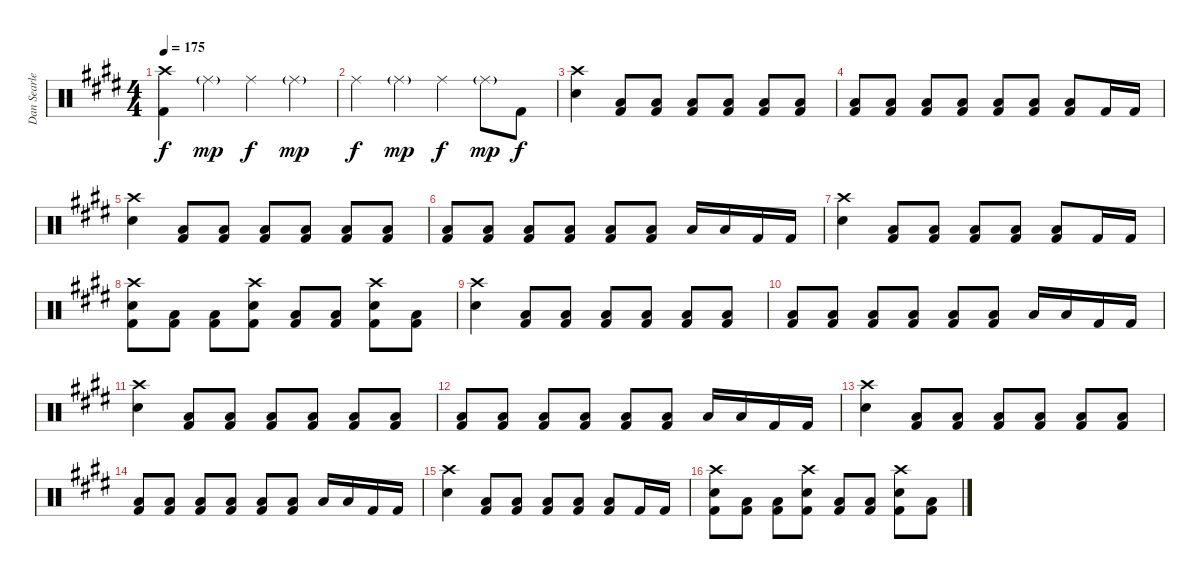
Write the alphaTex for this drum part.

\track ("Dan Searle" "Dan Searle") {instrument percussion}
\staff {score}
\articulation defaults
\ts (4 4)
\tempo 175
\clef neutral
\ks e
("Crash high (hit)" "Kick (hit) 2").4{dy f} "Ride (middle)"{g}.4{dy mp} "Ride (middle)".4{dy f} "Ride (middle)"{g}.4{dy mp} |
"Ride (middle)".4{dy f} "Ride (middle)"{g}.4{dy mp} "Ride (middle)".4{dy f} "Ride (middle)"{g}.8{dy mp} "Kick (hit) 2".8{dy f} |
("Crash high (hit)" "Snare (hit) 2").4 ("Low Floor Tom (hit)" "Kick (hit) 2").8 ("Low Floor Tom (hit)" "Kick (hit) 2").8 ("Low Floor Tom (hit)" "Kick (hit) 2").8 ("Low Floor Tom (hit)" "Kick (hit) 2").8 ("Low Floor Tom (hit)" "Kick (hit) 2").8 ("Low Floor Tom (hit)" "Kick (hit) 2").8 |
("Low Floor Tom (hit)" "Kick (hit) 2").8 ("Low Floor Tom (hit)" "Kick (hit) 2").8 ("Low Floor Tom (hit)" "Kick (hit) 2").8 ("Low Floor Tom (hit)" "Kick (hit) 2").8 ("Low Floor Tom (hit)" "Kick (hit) 2").8 ("Low Floor Tom (hit)" "Kick (hit) 2").8 ("Low Floor Tom (hit)" "Kick (hit) 2").8 "Kick (hit) 2".16 "Kick (hit) 2".16 |
("Crash high (hit)" "Snare (hit) 2").4 ("Low Floor Tom (hit)" "Kick (hit) 2").8 ("Low Floor Tom (hit)" "Kick (hit) 2").8 ("Low Floor Tom (hit)" "Kick (hit) 2").8 ("Low Floor Tom (hit)" "Kick (hit) 2").8 ("Low Floor Tom (hit)" "Kick (hit) 2").8 ("Low Floor Tom (hit)" "Kick (hit) 2").8 |
("Low Floor Tom (hit)" "Kick (hit) 2").8 ("Low Floor Tom (hit)" "Kick (hit) 2").8 ("Low Floor Tom (hit)" "Kick (hit) 2").8 ("Low Floor Tom (hit)" "Kick (hit) 2").8 ("Low Floor Tom (hit)" "Kick (hit) 2").8 ("Low Floor Tom (hit)" "Kick (hit) 2").8 "Low Floor Tom (hit)".16 "Low Floor Tom (hit)".16 "Kick (hit) 2".16 "Kick (hit) 2".16 |
("Crash high (hit)" "Snare (hit) 2").4 ("Low Floor Tom (hit)" "Kick (hit) 2").8 ("Low Floor Tom (hit)" "Kick (hit) 2").8 ("Low Floor Tom (hit)" "Kick (hit) 2").8 ("Low Floor Tom (hit)" "Kick (hit) 2").8 ("Low Floor Tom (hit)" "Kick (hit) 2").8 "Kick (hit) 2".16 "Kick (hit) 2".16 |
("Crash high (hit)" "Snare (hit) 2" "Kick (hit) 2").8 ("Low Floor Tom (hit)" "Kick (hit) 2").8 ("Low Floor Tom (hit)" "Kick (hit) 2").8 ("Crash high (hit)" "Snare (hit) 2" "Kick (hit) 2").8 ("Low Floor Tom (hit)" "Kick (hit) 2").8 ("Low Floor Tom (hit)" "Kick (hit) 2").8 ("Crash high (hit)" "Snare (hit) 2" "Kick (hit) 2").8 ("Low Floor Tom (hit)" "Kick (hit) 2").8 |
("Crash high (hit)" "Snare (hit) 2").4 ("Low Floor Tom (hit)" "Kick (hit) 2").8 ("Low Floor Tom (hit)" "Kick (hit) 2").8 ("Low Floor Tom (hit)" "Kick (hit) 2").8 ("Low Floor Tom (hit)" "Kick (hit) 2").8 ("Low Floor Tom (hit)" "Kick (hit) 2").8 ("Low Floor Tom (hit)" "Kick (hit) 2").8 |
("Low Floor Tom (hit)" "Kick (hit) 2").8 ("Low Floor Tom (hit)" "Kick (hit) 2").8 ("Low Floor Tom (hit)" "Kick (hit) 2").8 ("Low Floor Tom (hit)" "Kick (hit) 2").8 ("Low Floor Tom (hit)" "Kick (hit) 2").8 ("Low Floor Tom (hit)" "Kick (hit) 2").8 "Low Floor Tom (hit)".16 "Low Floor Tom (hit)".16 "Kick (hit) 2".16 "Kick (hit) 2".16 |
("Crash high (hit)" "Snare (hit) 2").4 ("Low Floor Tom (hit)" "Kick (hit) 2").8 ("Low Floor Tom (hit)" "Kick (hit) 2").8 ("Low Floor Tom (hit)" "Kick (hit) 2").8 ("Low Floor Tom (hit)" "Kick (hit) 2").8 ("Low Floor Tom (hit)" "Kick (hit) 2").8 ("Low Floor Tom (hit)" "Kick (hit) 2").8 |
("Low Floor Tom (hit)" "Kick (hit) 2").8 ("Low Floor Tom (hit)" "Kick (hit) 2").8 ("Low Floor Tom (hit)" "Kick (hit) 2").8 ("Low Floor Tom (hit)" "Kick (hit) 2").8 ("Low Floor Tom (hit)" "Kick (hit) 2").8 ("Low Floor Tom (hit)" "Kick (hit) 2").8 "Low Floor Tom (hit)".16 "Low Floor Tom (hit)".16 "Kick (hit) 2".16 "Kick (hit) 2".16 |
("Crash high (hit)" "Snare (hit) 2").4 ("Low Floor Tom (hit)" "Kick (hit) 2").8 ("Low Floor Tom (hit)" "Kick (hit) 2").8 ("Low Floor Tom (hit)" "Kick (hit) 2").8 ("Low Floor Tom (hit)" "Kick (hit) 2").8 ("Low Floor Tom (hit)" "Kick (hit) 2").8 ("Low Floor Tom (hit)" "Kick (hit) 2").8 |
("Low Floor Tom (hit)" "Kick (hit) 2").8 ("Low Floor Tom (hit)" "Kick (hit) 2").8 ("Low Floor Tom (hit)" "Kick (hit) 2").8 ("Low Floor Tom (hit)" "Kick (hit) 2").8 ("Low Floor Tom (hit)" "Kick (hit) 2").8 ("Low Floor Tom (hit)" "Kick (hit) 2").8 "Low Floor Tom (hit)".16 "Low Floor Tom (hit)".16 "Kick (hit) 2".16 "Kick (hit) 2".16 |
("Crash high (hit)" "Snare (hit) 2").4 ("Low Floor Tom (hit)" "Kick (hit) 2").8 ("Low Floor Tom (hit)" "Kick (hit) 2").8 ("Low Floor Tom (hit)" "Kick (hit) 2").8 ("Low Floor Tom (hit)" "Kick (hit) 2").8 ("Low Floor Tom (hit)" "Kick (hit) 2").8 "Kick (hit) 2".16 "Kick (hit) 2".16 |
("Crash high (hit)" "Snare (hit) 2" "Kick (hit) 2").8 ("Low Floor Tom (hit)" "Kick (hit) 2").8 ("Low Floor Tom (hit)" "Kick (hit) 2").8 ("Crash high (hit)" "Snare (hit) 2" "Kick (hit) 2").8 ("Low Floor Tom (hit)" "Kick (hit) 2").8 ("Low Floor Tom (hit)" "Kick (hit) 2").8 ("Crash high (hit)" "Snare (hit) 2" "Kick (hit) 2").8 ("Low Floor Tom (hit)" "Kick (hit) 2").8
